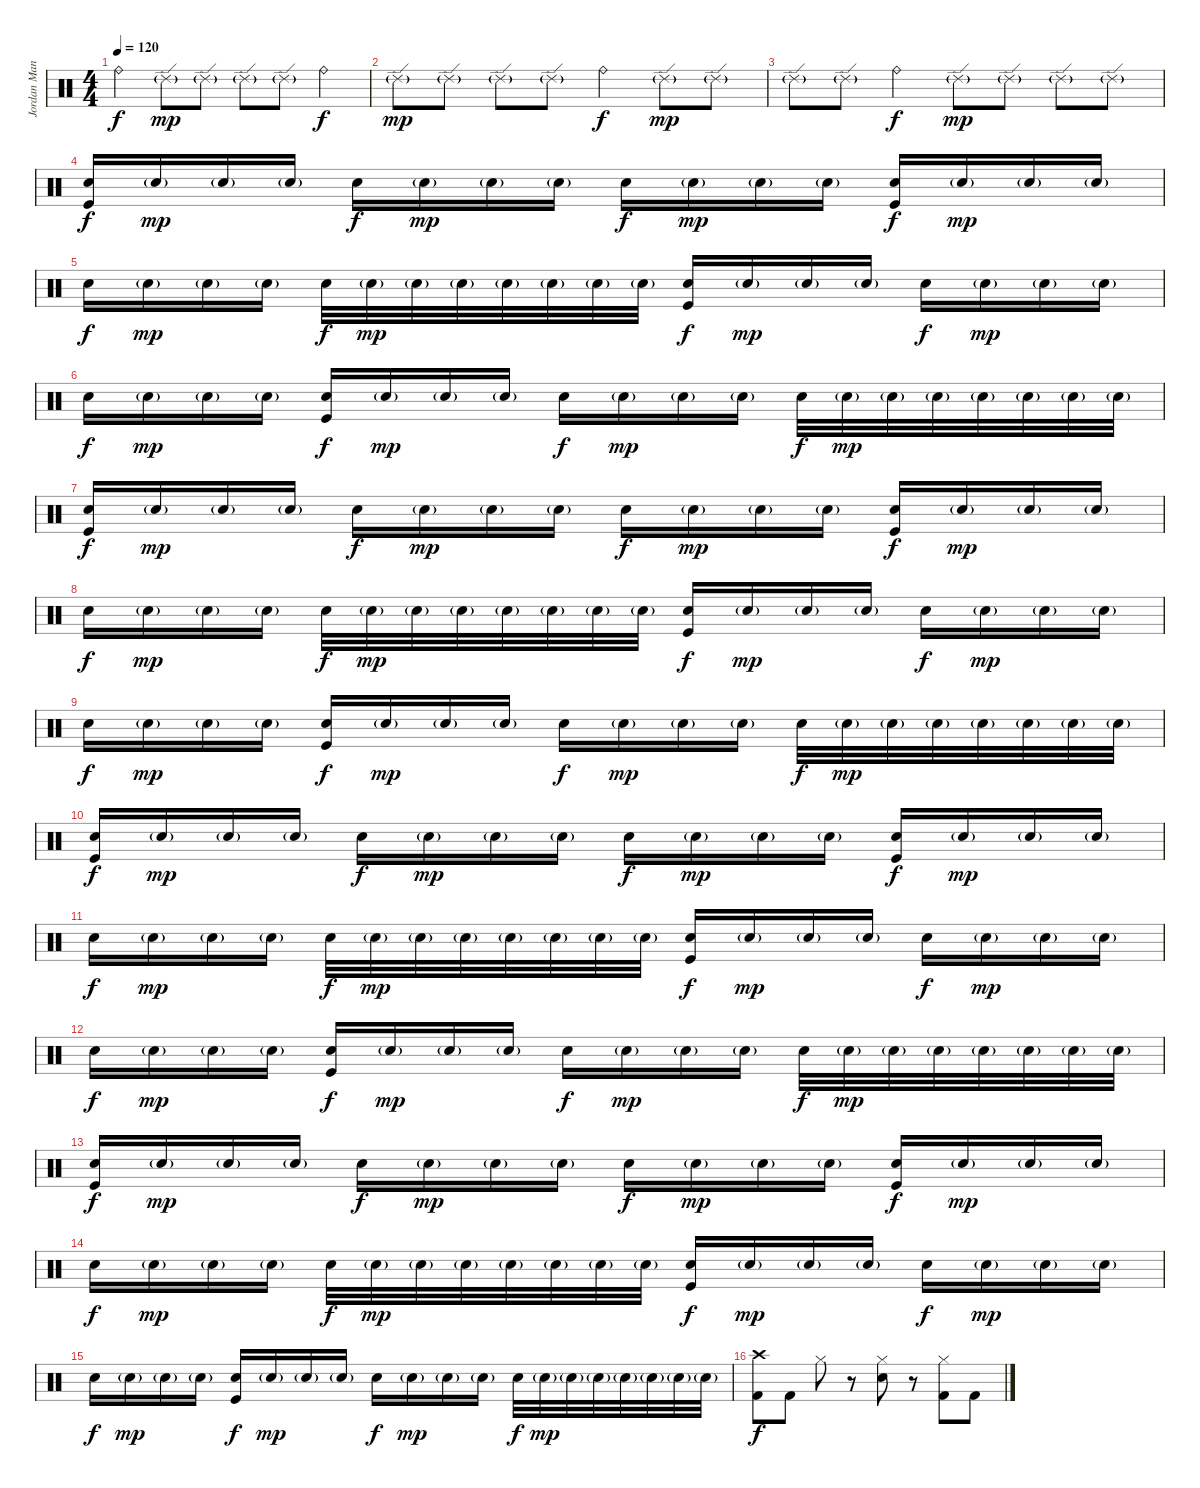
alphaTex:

\track ("Jordan Mancino - Drums" "Jordan Man") {instrument percussion}
\staff {score}
\articulation defaults
\ts (4 4)
\tempo 120
\clef neutral
\ks c "Ride (bell)".4{dy f} "Ride (edge) 2"{g}.8{dy mp} "Ride (edge) 2"{g}.8 "Ride (edge) 2"{g}.8 "Ride (edge) 2"{g}.8 "Ride (bell)".4{dy f}
|
"Ride (edge) 2"{g}.8{dy mp} "Ride (edge) 2"{g}.8 "Ride (edge) 2"{g}.8 "Ride (edge) 2"{g}.8 "Ride (bell)".4{dy f} "Ride (edge) 2"{g}.8{dy mp} "Ride (edge) 2"{g}.8 |
"Ride (edge) 2"{g}.8 "Ride (edge) 2"{g}.8 "Ride (bell)".4{dy f} "Ride (edge) 2"{g}.8{dy mp} "Ride (edge) 2"{g}.8 "Ride (edge) 2"{g}.8 "Ride (edge) 2"{g}.8 |
("Snare (hit) 2" "Kick (hit)").16{dy f} "Snare (hit) 2"{g}.16{dy mp} "Snare (hit) 2"{g}.16 "Snare (hit) 2"{g}.16 "Snare (hit) 2".16{dy f} "Snare (hit) 2"{g}.16{dy mp} "Snare (hit) 2"{g}.16 "Snare (hit) 2"{g}.16 "Snare (hit) 2".16{dy f} "Snare (hit) 2"{g}.16{dy mp} "Snare (hit) 2"{g}.16 "Snare (hit) 2"{g}.16 ("Snare (hit) 2" "Kick (hit)").16{dy f} "Snare (hit) 2"{g}.16{dy mp} "Snare (hit) 2"{g}.16 "Snare (hit) 2"{g}.16 |
"Snare (hit) 2".16{dy f} "Snare (hit) 2"{g}.16{dy mp} "Snare (hit) 2"{g}.16 "Snare (hit) 2"{g}.16 "Snare (hit) 2".32{dy f} "Snare (hit) 2"{g}.32{dy mp} "Snare (hit) 2"{g}.32 "Snare (hit) 2"{g}.32 "Snare (hit) 2"{g}.32 "Snare (hit) 2"{g}.32 "Snare (hit) 2"{g}.32 "Snare (hit) 2"{g}.32 ("Snare (hit) 2" "Kick (hit)").16{dy f} "Snare (hit) 2"{g}.16{dy mp} "Snare (hit) 2"{g}.16 "Snare (hit) 2"{g}.16 "Snare (hit) 2".16{dy f} "Snare (hit) 2"{g}.16{dy mp} "Snare (hit) 2"{g}.16 "Snare (hit) 2"{g}.16 |
"Snare (hit) 2".16{dy f} "Snare (hit) 2"{g}.16{dy mp} "Snare (hit) 2"{g}.16 "Snare (hit) 2"{g}.16 ("Snare (hit) 2" "Kick (hit)").16{dy f} "Snare (hit) 2"{g}.16{dy mp} "Snare (hit) 2"{g}.16 "Snare (hit) 2"{g}.16 "Snare (hit) 2".16{dy f} "Snare (hit) 2"{g}.16{dy mp} "Snare (hit) 2"{g}.16 "Snare (hit) 2"{g}.16 "Snare (hit) 2".32{dy f} "Snare (hit) 2"{g}.32{dy mp} "Snare (hit) 2"{g}.32 "Snare (hit) 2"{g}.32 "Snare (hit) 2"{g}.32 "Snare (hit) 2"{g}.32 "Snare (hit) 2"{g}.32 "Snare (hit) 2"{g}.32 |
("Snare (hit) 2" "Kick (hit)").16{dy f} "Snare (hit) 2"{g}.16{dy mp} "Snare (hit) 2"{g}.16 "Snare (hit) 2"{g}.16 "Snare (hit) 2".16{dy f} "Snare (hit) 2"{g}.16{dy mp} "Snare (hit) 2"{g}.16 "Snare (hit) 2"{g}.16 "Snare (hit) 2".16{dy f} "Snare (hit) 2"{g}.16{dy mp} "Snare (hit) 2"{g}.16 "Snare (hit) 2"{g}.16 ("Snare (hit) 2" "Kick (hit)").16{dy f} "Snare (hit) 2"{g}.16{dy mp} "Snare (hit) 2"{g}.16 "Snare (hit) 2"{g}.16 |
"Snare (hit) 2".16{dy f} "Snare (hit) 2"{g}.16{dy mp} "Snare (hit) 2"{g}.16 "Snare (hit) 2"{g}.16 "Snare (hit) 2".32{dy f} "Snare (hit) 2"{g}.32{dy mp} "Snare (hit) 2"{g}.32 "Snare (hit) 2"{g}.32 "Snare (hit) 2"{g}.32 "Snare (hit) 2"{g}.32 "Snare (hit) 2"{g}.32 "Snare (hit) 2"{g}.32 ("Snare (hit) 2" "Kick (hit)").16{dy f} "Snare (hit) 2"{g}.16{dy mp} "Snare (hit) 2"{g}.16 "Snare (hit) 2"{g}.16 "Snare (hit) 2".16{dy f} "Snare (hit) 2"{g}.16{dy mp} "Snare (hit) 2"{g}.16 "Snare (hit) 2"{g}.16 |
"Snare (hit) 2".16{dy f} "Snare (hit) 2"{g}.16{dy mp} "Snare (hit) 2"{g}.16 "Snare (hit) 2"{g}.16 ("Snare (hit) 2" "Kick (hit)").16{dy f} "Snare (hit) 2"{g}.16{dy mp} "Snare (hit) 2"{g}.16 "Snare (hit) 2"{g}.16 "Snare (hit) 2".16{dy f} "Snare (hit) 2"{g}.16{dy mp} "Snare (hit) 2"{g}.16 "Snare (hit) 2"{g}.16 "Snare (hit) 2".32{dy f} "Snare (hit) 2"{g}.32{dy mp} "Snare (hit) 2"{g}.32 "Snare (hit) 2"{g}.32 "Snare (hit) 2"{g}.32 "Snare (hit) 2"{g}.32 "Snare (hit) 2"{g}.32 "Snare (hit) 2"{g}.32 |
("Snare (hit) 2" "Kick (hit)").16{dy f} "Snare (hit) 2"{g}.16{dy mp} "Snare (hit) 2"{g}.16 "Snare (hit) 2"{g}.16 "Snare (hit) 2".16{dy f} "Snare (hit) 2"{g}.16{dy mp} "Snare (hit) 2"{g}.16 "Snare (hit) 2"{g}.16 "Snare (hit) 2".16{dy f} "Snare (hit) 2"{g}.16{dy mp} "Snare (hit) 2"{g}.16 "Snare (hit) 2"{g}.16 ("Snare (hit) 2" "Kick (hit)").16{dy f} "Snare (hit) 2"{g}.16{dy mp} "Snare (hit) 2"{g}.16 "Snare (hit) 2"{g}.16 |
"Snare (hit) 2".16{dy f} "Snare (hit) 2"{g}.16{dy mp} "Snare (hit) 2"{g}.16 "Snare (hit) 2"{g}.16 "Snare (hit) 2".32{dy f} "Snare (hit) 2"{g}.32{dy mp} "Snare (hit) 2"{g}.32 "Snare (hit) 2"{g}.32 "Snare (hit) 2"{g}.32 "Snare (hit) 2"{g}.32 "Snare (hit) 2"{g}.32 "Snare (hit) 2"{g}.32 ("Snare (hit) 2" "Kick (hit)").16{dy f} "Snare (hit) 2"{g}.16{dy mp} "Snare (hit) 2"{g}.16 "Snare (hit) 2"{g}.16 "Snare (hit) 2".16{dy f} "Snare (hit) 2"{g}.16{dy mp} "Snare (hit) 2"{g}.16 "Snare (hit) 2"{g}.16 |
"Snare (hit) 2".16{dy f} "Snare (hit) 2"{g}.16{dy mp} "Snare (hit) 2"{g}.16 "Snare (hit) 2"{g}.16 ("Snare (hit) 2" "Kick (hit)").16{dy f} "Snare (hit) 2"{g}.16{dy mp} "Snare (hit) 2"{g}.16 "Snare (hit) 2"{g}.16 "Snare (hit) 2".16{dy f} "Snare (hit) 2"{g}.16{dy mp} "Snare (hit) 2"{g}.16 "Snare (hit) 2"{g}.16 "Snare (hit) 2".32{dy f} "Snare (hit) 2"{g}.32{dy mp} "Snare (hit) 2"{g}.32 "Snare (hit) 2"{g}.32 "Snare (hit) 2"{g}.32 "Snare (hit) 2"{g}.32 "Snare (hit) 2"{g}.32 "Snare (hit) 2"{g}.32 |
("Snare (hit) 2" "Kick (hit)").16{dy f} "Snare (hit) 2"{g}.16{dy mp} "Snare (hit) 2"{g}.16 "Snare (hit) 2"{g}.16 "Snare (hit) 2".16{dy f} "Snare (hit) 2"{g}.16{dy mp} "Snare (hit) 2"{g}.16 "Snare (hit) 2"{g}.16 "Snare (hit) 2".16{dy f} "Snare (hit) 2"{g}.16{dy mp} "Snare (hit) 2"{g}.16 "Snare (hit) 2"{g}.16 ("Snare (hit) 2" "Kick (hit)").16{dy f} "Snare (hit) 2"{g}.16{dy mp} "Snare (hit) 2"{g}.16 "Snare (hit) 2"{g}.16 |
"Snare (hit) 2".16{dy f} "Snare (hit) 2"{g}.16{dy mp} "Snare (hit) 2"{g}.16 "Snare (hit) 2"{g}.16 "Snare (hit) 2".32{dy f} "Snare (hit) 2"{g}.32{dy mp} "Snare (hit) 2"{g}.32 "Snare (hit) 2"{g}.32 "Snare (hit) 2"{g}.32 "Snare (hit) 2"{g}.32 "Snare (hit) 2"{g}.32 "Snare (hit) 2"{g}.32 ("Snare (hit) 2" "Kick (hit)").16{dy f} "Snare (hit) 2"{g}.16{dy mp} "Snare (hit) 2"{g}.16 "Snare (hit) 2"{g}.16 "Snare (hit) 2".16{dy f} "Snare (hit) 2"{g}.16{dy mp} "Snare (hit) 2"{g}.16 "Snare (hit) 2"{g}.16 |
"Snare (hit) 2".16{dy f} "Snare (hit) 2"{g}.16{dy mp} "Snare (hit) 2"{g}.16 "Snare (hit) 2"{g}.16 ("Snare (hit) 2" "Kick (hit)").16{dy f} "Snare (hit) 2"{g}.16{dy mp} "Snare (hit) 2"{g}.16 "Snare (hit) 2"{g}.16 "Snare (hit) 2".16{dy f} "Snare (hit) 2"{g}.16{dy mp} "Snare (hit) 2"{g}.16 "Snare (hit) 2"{g}.16 "Snare (hit) 2".32{dy f} "Snare (hit) 2"{g}.32{dy mp} "Snare (hit) 2"{g}.32 "Snare (hit) 2"{g}.32 "Snare (hit) 2"{g}.32 "Snare (hit) 2"{g}.32 "Snare (hit) 2"{g}.32 "Snare (hit) 2"{g}.32 |
("Kick (hit) 2" "Crash high (hit)").8{dy f} "Kick (hit) 2".8 "Hi-Hat (closed)".8 r.8 ("Snare (hit) 2" "Hi-Hat (closed)").8 r.8 ("Kick (hit) 2" "Hi-Hat (closed)").8 "Kick (hit) 2".8
